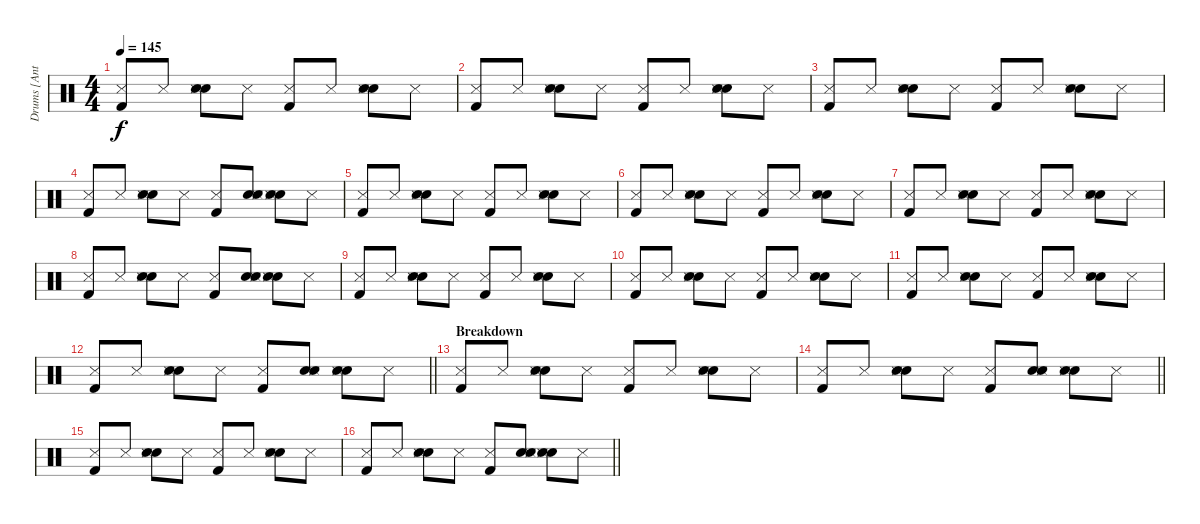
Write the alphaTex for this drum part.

\track ("Drums [Anthony Improgo]" "Drums [Ant") {instrument percussion}
\staff {score}
\articulation defaults
\ts (4 4)
\tempo 145
\clef neutral
\ks c
("Snare (side stick) 3" "Kick (hit) 2").8{dy f} "Snare (side stick) 3".8 ("Hand Clap (hit)" "Snare (hit) 2" "Snare (side stick) 3").8 "Snare (side stick) 3".8 ("Snare (side stick) 3" "Kick (hit) 2").8 "Snare (side stick) 3".8 ("Hand Clap (hit)" "Snare (hit) 2" "Snare (side stick) 3").8 "Snare (side stick) 3".8 |
("Snare (side stick) 3" "Kick (hit) 2").8 "Snare (side stick) 3".8 ("Hand Clap (hit)" "Snare (hit) 2" "Snare (side stick) 3").8 "Snare (side stick) 3".8 ("Snare (side stick) 3" "Kick (hit) 2").8 "Snare (side stick) 3".8 ("Hand Clap (hit)" "Snare (hit) 2" "Snare (side stick) 3").8 "Snare (side stick) 3".8 |
("Snare (side stick) 3" "Kick (hit) 2").8 "Snare (side stick) 3".8 ("Hand Clap (hit)" "Snare (hit) 2" "Snare (side stick) 3").8 "Snare (side stick) 3".8 ("Snare (side stick) 3" "Kick (hit) 2").8 "Snare (side stick) 3".8 ("Hand Clap (hit)" "Snare (hit) 2" "Snare (side stick) 3").8 "Snare (side stick) 3".8 |
("Snare (side stick) 3" "Kick (hit) 2").8 "Snare (side stick) 3".8 ("Hand Clap (hit)" "Snare (hit) 2" "Snare (side stick) 3").8 "Snare (side stick) 3".8 ("Snare (side stick) 3" "Kick (hit) 2").8 ("Hand Clap (hit)" "Snare (hit) 2" "Snare (side stick) 3").8 ("Hand Clap (hit)" "Snare (hit) 2" "Snare (side stick) 3").8 "Snare (side stick) 3".8 |
("Snare (side stick) 3" "Kick (hit) 2").8 "Snare (side stick) 3".8 ("Hand Clap (hit)" "Snare (hit) 2" "Snare (side stick) 3").8 "Snare (side stick) 3".8 ("Snare (side stick) 3" "Kick (hit) 2").8 "Snare (side stick) 3".8 ("Hand Clap (hit)" "Snare (hit) 2" "Snare (side stick) 3").8 "Snare (side stick) 3".8 |
("Snare (side stick) 3" "Kick (hit) 2").8 "Snare (side stick) 3".8 ("Hand Clap (hit)" "Snare (hit) 2" "Snare (side stick) 3").8 "Snare (side stick) 3".8 ("Snare (side stick) 3" "Kick (hit) 2").8 "Snare (side stick) 3".8 ("Hand Clap (hit)" "Snare (hit) 2" "Snare (side stick) 3").8 "Snare (side stick) 3".8 |
("Snare (side stick) 3" "Kick (hit) 2").8 "Snare (side stick) 3".8 ("Hand Clap (hit)" "Snare (hit) 2" "Snare (side stick) 3").8 "Snare (side stick) 3".8 ("Snare (side stick) 3" "Kick (hit) 2").8 "Snare (side stick) 3".8 ("Hand Clap (hit)" "Snare (hit) 2" "Snare (side stick) 3").8 "Snare (side stick) 3".8 |
("Snare (side stick) 3" "Kick (hit) 2").8 "Snare (side stick) 3".8 ("Hand Clap (hit)" "Snare (hit) 2" "Snare (side stick) 3").8 "Snare (side stick) 3".8 ("Snare (side stick) 3" "Kick (hit) 2").8 ("Hand Clap (hit)" "Snare (hit) 2" "Snare (side stick) 3").8 ("Hand Clap (hit)" "Snare (hit) 2" "Snare (side stick) 3").8 "Snare (side stick) 3".8 |
("Snare (side stick) 3" "Kick (hit) 2").8 "Snare (side stick) 3".8 ("Hand Clap (hit)" "Snare (hit) 2" "Snare (side stick) 3").8 "Snare (side stick) 3".8 ("Snare (side stick) 3" "Kick (hit) 2").8 "Snare (side stick) 3".8 ("Hand Clap (hit)" "Snare (hit) 2" "Snare (side stick) 3").8 "Snare (side stick) 3".8 |
("Snare (side stick) 3" "Kick (hit) 2").8 "Snare (side stick) 3".8 ("Hand Clap (hit)" "Snare (hit) 2" "Snare (side stick) 3").8 "Snare (side stick) 3".8 ("Snare (side stick) 3" "Kick (hit) 2").8 "Snare (side stick) 3".8 ("Hand Clap (hit)" "Snare (hit) 2" "Snare (side stick) 3").8 "Snare (side stick) 3".8 |
("Snare (side stick) 3" "Kick (hit) 2").8 "Snare (side stick) 3".8 ("Hand Clap (hit)" "Snare (hit) 2" "Snare (side stick) 3").8 "Snare (side stick) 3".8 ("Snare (side stick) 3" "Kick (hit) 2").8 "Snare (side stick) 3".8 ("Hand Clap (hit)" "Snare (hit) 2" "Snare (side stick) 3").8 "Snare (side stick) 3".8 |
\barLineRight lightlight
("Snare (side stick) 3" "Kick (hit) 2").8 "Snare (side stick) 3".8 ("Hand Clap (hit)" "Snare (hit) 2" "Snare (side stick) 3").8 "Snare (side stick) 3".8 ("Snare (side stick) 3" "Kick (hit) 2").8 ("Hand Clap (hit)" "Snare (hit) 2" "Snare (side stick) 3").8 ("Hand Clap (hit)" "Snare (hit) 2" "Snare (side stick) 3").8 "Snare (side stick) 3".8 |
\section ("" "Breakdown")
("Snare (side stick) 3" "Kick (hit) 2").8 "Snare (side stick) 3".8 ("Hand Clap (hit)" "Snare (hit) 2" "Snare (side stick) 3").8 "Snare (side stick) 3".8 ("Snare (side stick) 3" "Kick (hit) 2").8 "Snare (side stick) 3".8 ("Hand Clap (hit)" "Snare (hit) 2" "Snare (side stick) 3").8 "Snare (side stick) 3".8 |
\barLineRight lightlight
("Snare (side stick) 3" "Kick (hit) 2").8 "Snare (side stick) 3".8 ("Hand Clap (hit)" "Snare (hit) 2" "Snare (side stick) 3").8 "Snare (side stick) 3".8 ("Snare (side stick) 3" "Kick (hit) 2").8 ("Hand Clap (hit)" "Snare (hit) 2" "Snare (side stick) 3").8 ("Hand Clap (hit)" "Snare (hit) 2" "Snare (side stick) 3").8 "Snare (side stick) 3".8 |
("Snare (side stick) 3" "Kick (hit) 2").8 "Snare (side stick) 3".8 ("Hand Clap (hit)" "Snare (hit) 2" "Snare (side stick) 3").8 "Snare (side stick) 3".8 ("Snare (side stick) 3" "Kick (hit) 2").8 "Snare (side stick) 3".8 ("Hand Clap (hit)" "Snare (hit) 2" "Snare (side stick) 3").8 "Snare (side stick) 3".8 |
\barLineRight lightlight
("Snare (side stick) 3" "Kick (hit) 2").8 "Snare (side stick) 3".8 ("Hand Clap (hit)" "Snare (hit) 2" "Snare (side stick) 3").8 "Snare (side stick) 3".8 ("Snare (side stick) 3" "Kick (hit) 2").8 ("Hand Clap (hit)" "Snare (hit) 2" "Snare (side stick) 3").8 ("Hand Clap (hit)" "Snare (hit) 2" "Snare (side stick) 3").8 "Snare (side stick) 3".8
